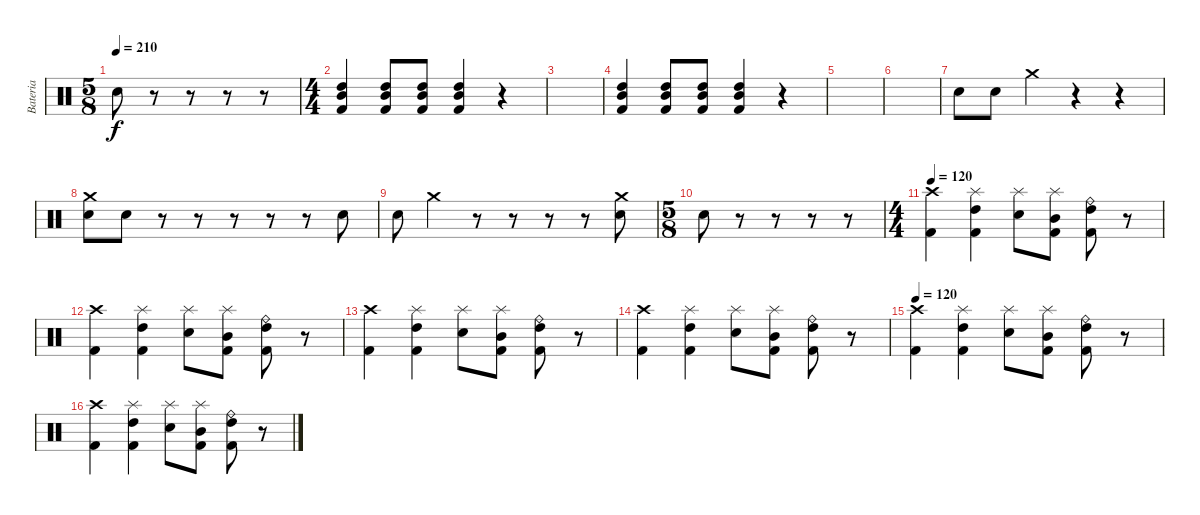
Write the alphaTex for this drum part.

\track ("Bateria" "Bateria") {instrument percussion}
\staff {score}
\articulation defaults
\ts (5 8)
\tempo 210
\clef neutral
\ks c "Electric Snare (hit)".8{dy f}
r.8 r.8 r.8 r.8 |
\ts (4 4)
("High Tom (hit)" "Mid Tom (hit)" "Kick (hit) 2").4 ("High Tom (hit)" "Mid Tom (hit)" "Kick (hit) 2").8 ("High Tom (hit)" "Mid Tom (hit)" "Kick (hit) 2").8 ("High Tom (hit)" "Mid Tom (hit)" "Kick (hit) 2").4 r.4 |
|
("High Tom (hit)" "Mid Tom (hit)" "Kick (hit) 2").4 ("High Tom (hit)" "Mid Tom (hit)" "Kick (hit) 2").8 ("High Tom (hit)" "Mid Tom (hit)" "Kick (hit) 2").8 ("High Tom (hit)" "Mid Tom (hit)" "Kick (hit) 2").4 r.4 |
|
|
"Electric Snare (hit)".8 "Electric Snare (hit)".8 "Crash medium (hit)".4 r.4 r.4 |
("Crash medium (hit)" "Electric Snare (hit)").8 "Electric Snare (hit)".8 r.8 r.8 r.8 r.8 r.8 "Electric Snare (hit)".8 |
"Electric Snare (hit)".8 "Crash medium (hit)".4 r.8 r.8 r.8 r.8 ("Crash medium (hit)" "Electric Snare (hit)").8 |
\ts (5 8)
"Electric Snare (hit)".8 r.8 r.8 r.8 r.8 |
\ts (4 4)
\tempo 120
("Crash high (hit)" "Kick (hit) 2").4 ("Splash (hit)" "Kick (hit) 2" "High Tom (hit)").4 ("Splash (hit)" "Electric Snare (hit)").8 ("Splash (hit)" "Mid Tom (hit)" "Kick (hit) 2").8 ("Ride (bell)" "Kick (hit) 2" "High Tom (hit)").8 r.8 |
("Crash high (hit)" "Kick (hit) 2").4 ("Splash (hit)" "Kick (hit) 2" "High Tom (hit)").4 ("Splash (hit)" "Electric Snare (hit)").8 ("Splash (hit)" "Mid Tom (hit)" "Kick (hit) 2").8 ("Ride (bell)" "Kick (hit) 2" "High Tom (hit)").8 r.8 |
("Crash high (hit)" "Kick (hit) 2").4 ("Splash (hit)" "Kick (hit) 2" "High Tom (hit)").4 ("Splash (hit)" "Electric Snare (hit)").8 ("Splash (hit)" "Mid Tom (hit)" "Kick (hit) 2").8 ("Ride (bell)" "Kick (hit) 2" "High Tom (hit)").8 r.8 |
("Crash high (hit)" "Kick (hit) 2").4 ("Splash (hit)" "Kick (hit) 2" "High Tom (hit)").4 ("Splash (hit)" "Electric Snare (hit)").8 ("Splash (hit)" "Mid Tom (hit)" "Kick (hit) 2").8 ("Ride (bell)" "Kick (hit) 2" "High Tom (hit)").8 r.8 |
\tempo 120
("Crash high (hit)" "Kick (hit) 2").4 ("Splash (hit)" "Kick (hit) 2" "High Tom (hit)").4 ("Splash (hit)" "Electric Snare (hit)").8 ("Splash (hit)" "Mid Tom (hit)" "Kick (hit) 2").8 ("Ride (bell)" "Kick (hit) 2" "High Tom (hit)").8 r.8 |
("Crash high (hit)" "Kick (hit) 2").4 ("Splash (hit)" "Kick (hit) 2" "High Tom (hit)").4 ("Splash (hit)" "Electric Snare (hit)").8 ("Splash (hit)" "Mid Tom (hit)" "Kick (hit) 2").8 ("Ride (bell)" "Kick (hit) 2" "High Tom (hit)").8 r.8
